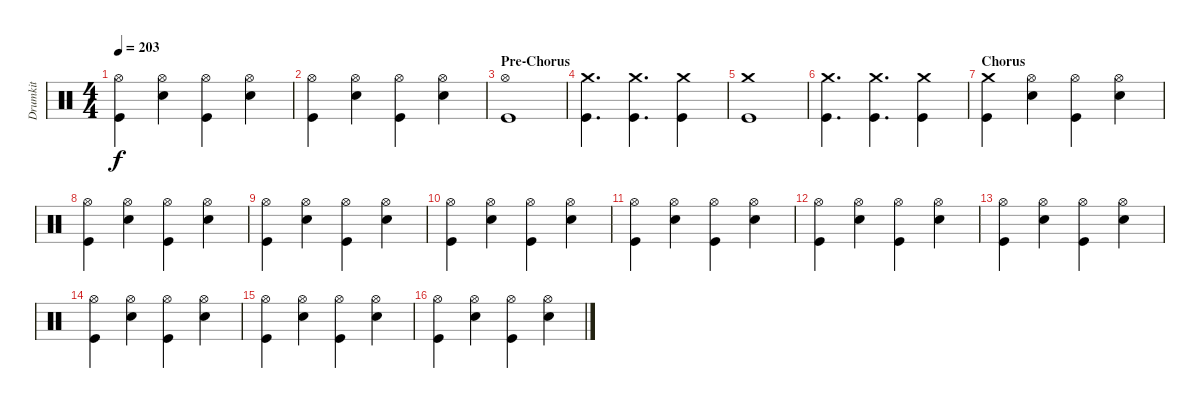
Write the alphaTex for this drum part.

\track ("Drumkit" "Drumkit") {instrument percussion}
\staff {score}
\articulation defaults
\ts (4 4)
\tempo 203
\clef neutral
\ks c
("Kick (hit)" "Hi-Hat (open)").4{dy f} ("Snare (hit) 2" "Hi-Hat (open)").4 ("Kick (hit)" "Hi-Hat (open)").4 ("Snare (hit) 2" "Hi-Hat (open)").4 |
("Kick (hit)" "Hi-Hat (open)").4 ("Snare (hit) 2" "Hi-Hat (open)").4 ("Kick (hit)" "Hi-Hat (open)").4 ("Snare (hit) 2" "Hi-Hat (open)").4 |
\section ("" "Pre-Chorus")
("Kick (hit)" "Hi-Hat (open)").1 |
("Kick (hit)" "Crash medium (hit)").4{d} ("Kick (hit)" "Crash medium (hit)").4{d} ("Kick (hit)" "Crash medium (hit)").4 |
("Kick (hit)" "Crash medium (hit)").1 |
("Kick (hit)" "Crash medium (hit)").4{d} ("Kick (hit)" "Crash medium (hit)").4{d} ("Kick (hit)" "Crash medium (hit)").4 |
\section ("" "Chorus")
("Kick (hit)" "Crash medium (hit)").4 ("Snare (hit) 2" "Hi-Hat (open)").4 ("Kick (hit)" "Hi-Hat (open)").4 ("Snare (hit) 2" "Hi-Hat (open)").4 |
("Kick (hit)" "Hi-Hat (open)").4 ("Snare (hit) 2" "Hi-Hat (open)").4 ("Kick (hit)" "Hi-Hat (open)").4 ("Snare (hit) 2" "Hi-Hat (open)").4 |
("Kick (hit)" "Hi-Hat (open)").4 ("Snare (hit) 2" "Hi-Hat (open)").4 ("Kick (hit)" "Hi-Hat (open)").4 ("Snare (hit) 2" "Hi-Hat (open)").4 |
("Kick (hit)" "Hi-Hat (open)").4 ("Snare (hit) 2" "Hi-Hat (open)").4 ("Kick (hit)" "Hi-Hat (open)").4 ("Snare (hit) 2" "Hi-Hat (open)").4 |
("Kick (hit)" "Hi-Hat (open)").4 ("Snare (hit) 2" "Hi-Hat (open)").4 ("Kick (hit)" "Hi-Hat (open)").4 ("Snare (hit) 2" "Hi-Hat (open)").4 |
("Kick (hit)" "Hi-Hat (open)").4 ("Snare (hit) 2" "Hi-Hat (open)").4 ("Kick (hit)" "Hi-Hat (open)").4 ("Snare (hit) 2" "Hi-Hat (open)").4 |
("Kick (hit)" "Hi-Hat (open)").4 ("Snare (hit) 2" "Hi-Hat (open)").4 ("Kick (hit)" "Hi-Hat (open)").4 ("Snare (hit) 2" "Hi-Hat (open)").4 |
("Kick (hit)" "Hi-Hat (open)").4 ("Snare (hit) 2" "Hi-Hat (open)").4 ("Kick (hit)" "Hi-Hat (open)").4 ("Snare (hit) 2" "Hi-Hat (open)").4 |
("Kick (hit)" "Hi-Hat (open)").4 ("Snare (hit) 2" "Hi-Hat (open)").4 ("Kick (hit)" "Hi-Hat (open)").4 ("Snare (hit) 2" "Hi-Hat (open)").4 |
("Kick (hit)" "Hi-Hat (open)").4 ("Snare (hit) 2" "Hi-Hat (open)").4 ("Kick (hit)" "Hi-Hat (open)").4 ("Snare (hit) 2" "Hi-Hat (open)").4
